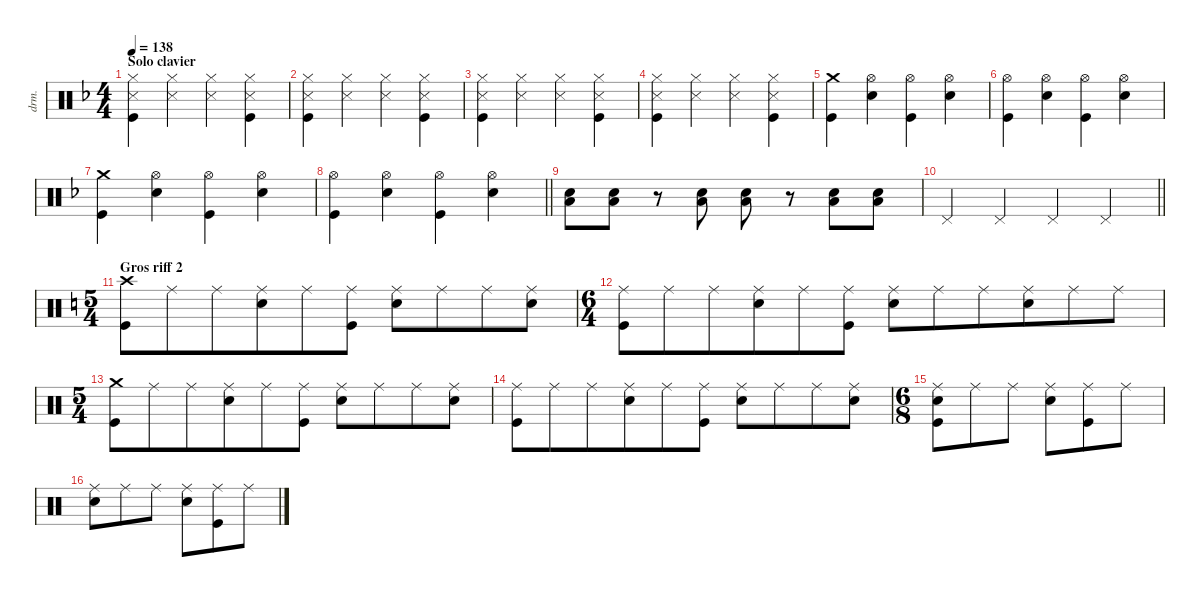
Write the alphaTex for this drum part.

\defaultSystemsLayout 4
\hideDynamics
\bracketExtendMode nobrackets
\track ("Percussions" "drm.") {instrument percussion}
\staff {score}
\articulation defaults
\ts (4 4)
\section ("" "Solo clavier")
\tempo 138
\clef neutral
\ks dminor
("Hi-Hat (closed)"{acc forcenatural} "Snare (side stick) 3"{acc forcenatural} "Kick (hit)"{acc forcenatural}).4{dy f beam Down} ("Hi-Hat (closed)"{acc forcenatural} "Snare (side stick) 3"{acc forcenatural}).4{beam Down} ("Hi-Hat (closed)"{acc forcenatural} "Snare (side stick) 3"{acc forcenatural}).4{beam Down} ("Hi-Hat (closed)"{acc forcenatural} "Snare (side stick) 3"{acc forcenatural} "Kick (hit)"{acc forcenatural}).4{beam Down} |
("Hi-Hat (closed)"{acc forcenatural} "Snare (side stick) 3"{acc forcenatural} "Kick (hit)"{acc forcenatural}).4{beam Down} ("Hi-Hat (closed)"{acc forcenatural} "Snare (side stick) 3"{acc forcenatural}).4{beam Down} ("Hi-Hat (closed)"{acc forcenatural} "Snare (side stick) 3"{acc forcenatural}).4{beam Down} ("Hi-Hat (closed)"{acc forcenatural} "Snare (side stick) 3"{acc forcenatural} "Kick (hit)"{acc forcenatural}).4{beam Down} |
("Hi-Hat (closed)"{acc forcenatural} "Snare (side stick) 3"{acc forcenatural} "Kick (hit)"{acc forcenatural}).4{beam Down} ("Hi-Hat (closed)"{acc forcenatural} "Snare (side stick) 3"{acc forcenatural}).4{beam Down} ("Hi-Hat (closed)"{acc forcenatural} "Snare (side stick) 3"{acc forcenatural}).4{beam Down} ("Hi-Hat (closed)"{acc forcenatural} "Snare (side stick) 3"{acc forcenatural} "Kick (hit)"{acc forcenatural}).4{beam Down} |
("Hi-Hat (closed)"{acc forcenatural} "Snare (side stick) 3"{acc forcenatural} "Kick (hit)"{acc forcenatural}).4{beam Down} ("Hi-Hat (closed)"{acc forcenatural} "Snare (side stick) 3"{acc forcenatural}).4{beam Down} ("Hi-Hat (closed)"{acc forcenatural} "Snare (side stick) 3"{acc forcenatural}).4{beam Down} ("Hi-Hat (closed)"{acc forcenatural} "Snare (side stick) 3"{acc forcenatural} "Kick (hit)"{acc forcenatural}).4{beam Down} |
("Crash medium (hit)"{acc forcenatural} "Kick (hit)"{acc forcenatural}).4{beam Down} ("Hi-Hat (open)"{acc forcenatural} "Snare (hit) 2"{acc forcenatural}).4{beam Down} ("Hi-Hat (open)"{acc forcenatural} "Kick (hit)"{acc forcenatural}).4{beam Down} ("Hi-Hat (open)"{acc forcenatural} "Snare (hit) 2"{acc forcenatural}).4{beam Down} |
("Hi-Hat (open)"{acc forcenatural} "Kick (hit)"{acc forcenatural}).4{beam Down} ("Hi-Hat (open)"{acc forcenatural} "Snare (hit) 2"{acc forcenatural}).4{beam Down} ("Hi-Hat (open)"{acc forcenatural} "Kick (hit)"{acc forcenatural}).4{beam Down} ("Hi-Hat (open)"{acc forcenatural} "Snare (hit) 2"{acc forcenatural}).4{beam Down} |
("Crash medium (hit)"{acc forcenatural} "Kick (hit)"{acc forcenatural}).4{beam Down} ("Hi-Hat (open)"{acc forcenatural} "Snare (hit) 2"{acc forcenatural}).4{beam Down} ("Hi-Hat (open)"{acc forcenatural} "Kick (hit)"{acc forcenatural}).4{beam Down} ("Hi-Hat (open)"{acc forcenatural} "Snare (hit) 2"{acc forcenatural}).4{beam Down} |
\barLineRight lightlight
("Hi-Hat (open)"{acc forcenatural} "Kick (hit)"{acc forcenatural}).4{beam Down} ("Hi-Hat (open)"{acc forcenatural} "Snare (hit) 2"{acc forcenatural}).4{beam Down} ("Hi-Hat (open)"{acc forcenatural} "Kick (hit)"{acc forcenatural}).4{beam Down} ("Hi-Hat (open)"{acc forcenatural} "Snare (hit) 2"{acc forcenatural}).4{beam Down} |
("Snare (hit) 2"{acc forcenatural} "Low Tom (hit)"{acc forcenatural}).8{beam Down} ("Snare (hit) 2"{acc forcenatural} "Low Tom (hit)"{acc forcenatural}).8{beam Down} r.8{beam Down} ("Snare (hit) 2"{acc forcenatural} "Low Tom (hit)"{acc forcenatural}).8{beam Down} ("Snare (hit) 2"{acc forcenatural} "Low Tom (hit)"{acc forcenatural}).8{beam Down} r.8{beam Down} ("Snare (hit) 2"{acc forcenatural} "Low Tom (hit)"{acc forcenatural}).8{beam Down} ("Snare (hit) 2"{acc forcenatural} "Low Tom (hit)"{acc forcenatural}).8{beam Down} |
\barLineRight lightlight "Pedal Hi-Hat (hit)"{acc forcenatural}.4{beam Up} "Pedal Hi-Hat (hit)"{acc forcenatural}.4{beam Up} "Pedal Hi-Hat (hit)"{acc forcenatural}.4{beam Up} "Pedal Hi-Hat (hit)"{acc forcenatural}.4{beam Up}
|
\ts (5 4)
\beaming (8 6 4)
\section ("" "Gros riff 2")
\ks aminor
("Crash high (hit)" "Kick (hit)").8{beam Down} "Ride (middle)".8{beam Down} "Ride (middle)".8{beam Down} ("Ride (middle)" "Snare (hit) 2").8{beam Down} "Ride (middle)".8{beam Down} ("Ride (middle)" "Kick (hit)").8{beam Down} ("Ride (middle)" "Snare (hit) 2").8{beam Down} "Ride (middle)".8{beam Down} "Ride (middle)".8{beam Down} ("Ride (middle)" "Snare (hit) 2").8{beam Down} |
\ts (6 4)
\beaming (8 6 6)
("Ride (middle)" "Kick (hit)").8{beam Down} "Ride (middle)".8{beam Down} "Ride (middle)".8{beam Down} ("Ride (middle)" "Snare (hit) 2").8{beam Down} "Ride (middle)".8{beam Down} ("Ride (middle)" "Kick (hit)").8{beam Down} ("Ride (middle)" "Snare (hit) 2").8{beam Down} "Ride (middle)".8{beam Down} "Ride (middle)".8{beam Down} ("Ride (middle)" "Snare (hit) 2").8{beam Down} "Ride (middle)".8{beam Down} "Ride (middle)".8{beam Down} |
\ts (5 4)
\beaming (8 6 4)
("Crash medium (hit)" "Kick (hit)").8{beam Down} "Ride (middle)".8{beam Down} "Ride (middle)".8{beam Down} ("Ride (middle)" "Snare (hit) 2").8{beam Down} "Ride (middle)".8{beam Down} ("Ride (middle)" "Kick (hit)").8{beam Down} ("Ride (middle)" "Snare (hit) 2").8{beam Down} "Ride (middle)".8{beam Down} "Ride (middle)".8{beam Down} ("Ride (middle)" "Snare (hit) 2").8{beam Down} |
("Ride (middle)" "Kick (hit)").8{beam Down} "Ride (middle)".8{beam Down} "Ride (middle)".8{beam Down} ("Ride (middle)" "Snare (hit) 2").8{beam Down} "Ride (middle)".8{beam Down} ("Ride (middle)" "Kick (hit)").8{beam Down} ("Ride (middle)" "Snare (hit) 2").8{beam Down} "Ride (middle)".8{beam Down} "Ride (middle)".8{beam Down} ("Ride (middle)" "Snare (hit) 2").8{beam Down} |
\ts (6 8)
\beaming (8 3 3)
("Ride (middle)" "Snare (hit) 2" "Kick (hit)").8{beam Down} "Ride (middle)".8{beam Down} "Ride (middle)".8{beam Down} ("Ride (middle)" "Snare (hit) 2").8{beam Down} ("Ride (middle)" "Kick (hit)").8{beam Down} "Ride (middle)".8{beam Down} |
("Ride (middle)" "Snare (hit) 2").8{beam Down} "Ride (middle)".8{beam Down} "Ride (middle)".8{beam Down} ("Ride (middle)" "Snare (hit) 2").8{beam Down} ("Ride (middle)" "Kick (hit)").8{beam Down} "Ride (middle)".8{beam Down}
